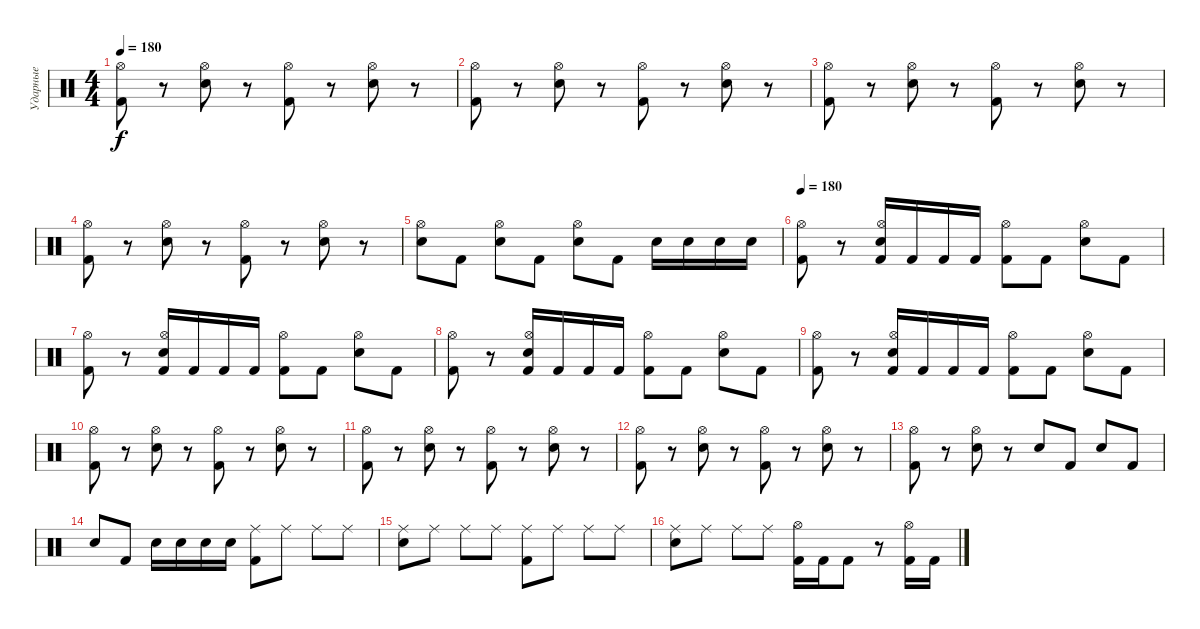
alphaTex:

\track ("Ударные" "Ударные") {instrument percussion}
\staff {score}
\articulation defaults
\ts (4 4)
\tempo 180
\clef neutral
\ks c
("Kick (hit) 2" "Hi-Hat (open)").8{dy f} r.8 ("Electric Snare (hit)" "Hi-Hat (open)").8 r.8 ("Kick (hit) 2" "Hi-Hat (open)").8 r.8 ("Electric Snare (hit)" "Hi-Hat (open)").8 r.8 |
("Kick (hit) 2" "Hi-Hat (open)").8 r.8 ("Electric Snare (hit)" "Hi-Hat (open)").8 r.8 ("Kick (hit) 2" "Hi-Hat (open)").8 r.8 ("Electric Snare (hit)" "Hi-Hat (open)").8 r.8 |
("Kick (hit) 2" "Hi-Hat (open)").8 r.8 ("Electric Snare (hit)" "Hi-Hat (open)").8 r.8 ("Kick (hit) 2" "Hi-Hat (open)").8 r.8 ("Electric Snare (hit)" "Hi-Hat (open)").8 r.8 |
("Kick (hit) 2" "Hi-Hat (open)").8 r.8 ("Electric Snare (hit)" "Hi-Hat (open)").8 r.8 ("Kick (hit) 2" "Hi-Hat (open)").8 r.8 ("Electric Snare (hit)" "Hi-Hat (open)").8 r.8 |
("Electric Snare (hit)" "Hi-Hat (open)").8 "Kick (hit) 2".8 ("Electric Snare (hit)" "Hi-Hat (open)").8 "Kick (hit) 2".8 ("Electric Snare (hit)" "Hi-Hat (open)").8 "Kick (hit) 2".8 "Electric Snare (hit)".16 "Electric Snare (hit)".16 "Electric Snare (hit)".16 "Electric Snare (hit)".16 |
\tempo 180
("Kick (hit) 2" "Hi-Hat (open)").8 r.8 ("Kick (hit) 2" "Electric Snare (hit)" "Hi-Hat (open)").16 "Kick (hit) 2".16 "Kick (hit) 2".16 "Kick (hit) 2".16 ("Kick (hit) 2" "Hi-Hat (open)").8 "Kick (hit) 2".8 ("Electric Snare (hit)" "Hi-Hat (open)").8 "Kick (hit) 2".8 |
("Kick (hit) 2" "Hi-Hat (open)").8 r.8 ("Kick (hit) 2" "Electric Snare (hit)" "Hi-Hat (open)").16 "Kick (hit) 2".16 "Kick (hit) 2".16 "Kick (hit) 2".16 ("Kick (hit) 2" "Hi-Hat (open)").8 "Kick (hit) 2".8 ("Electric Snare (hit)" "Hi-Hat (open)").8 "Kick (hit) 2".8 |
("Kick (hit) 2" "Hi-Hat (open)").8 r.8 ("Kick (hit) 2" "Electric Snare (hit)" "Hi-Hat (open)").16 "Kick (hit) 2".16 "Kick (hit) 2".16 "Kick (hit) 2".16 ("Kick (hit) 2" "Hi-Hat (open)").8 "Kick (hit) 2".8 ("Electric Snare (hit)" "Hi-Hat (open)").8 "Kick (hit) 2".8 |
("Kick (hit) 2" "Hi-Hat (open)").8 r.8 ("Kick (hit) 2" "Electric Snare (hit)" "Hi-Hat (open)").16 "Kick (hit) 2".16 "Kick (hit) 2".16 "Kick (hit) 2".16 ("Kick (hit) 2" "Hi-Hat (open)").8 "Kick (hit) 2".8 ("Electric Snare (hit)" "Hi-Hat (open)").8 "Kick (hit) 2".8 |
("Kick (hit) 2" "Hi-Hat (open)").8 r.8 ("Electric Snare (hit)" "Hi-Hat (open)").8 r.8 ("Kick (hit) 2" "Hi-Hat (open)").8 r.8 ("Electric Snare (hit)" "Hi-Hat (open)").8 r.8 |
("Kick (hit) 2" "Hi-Hat (open)").8 r.8 ("Electric Snare (hit)" "Hi-Hat (open)").8 r.8 ("Kick (hit) 2" "Hi-Hat (open)").8 r.8 ("Electric Snare (hit)" "Hi-Hat (open)").8 r.8 |
("Kick (hit) 2" "Hi-Hat (open)").8 r.8 ("Electric Snare (hit)" "Hi-Hat (open)").8 r.8 ("Kick (hit) 2" "Hi-Hat (open)").8 r.8 ("Electric Snare (hit)" "Hi-Hat (open)").8 r.8 |
("Kick (hit) 2" "Hi-Hat (open)").8 r.8 ("Electric Snare (hit)" "Hi-Hat (open)").8 r.8 "Electric Snare (hit)".8 "Kick (hit) 2".8 "Electric Snare (hit)".8 "Kick (hit) 2".8 |
"Electric Snare (hit)".8 "Kick (hit) 2".8 "Electric Snare (hit)".16 "Electric Snare (hit)".16 "Electric Snare (hit)".16 "Electric Snare (hit)".16 ("Kick (hit) 2" "Ride (middle)").8 "Ride (middle)".8 "Ride (middle)".8 "Ride (middle)".8 |
("Electric Snare (hit)" "Ride (middle)").8 "Ride (middle)".8 "Ride (middle)".8 "Ride (middle)".8 ("Ride (middle)" "Kick (hit) 2").8 "Ride (middle)".8 "Ride (middle)".8 "Ride (middle)".8 |
("Electric Snare (hit)" "Ride (middle)").8 "Ride (middle)".8 "Ride (middle)".8 "Ride (middle)".8 ("Kick (hit) 2" "Hi-Hat (open)").16 "Kick (hit) 2".16 "Kick (hit) 2".8 r.8 ("Kick (hit) 2" "Hi-Hat (open)").16 "Kick (hit) 2".16
